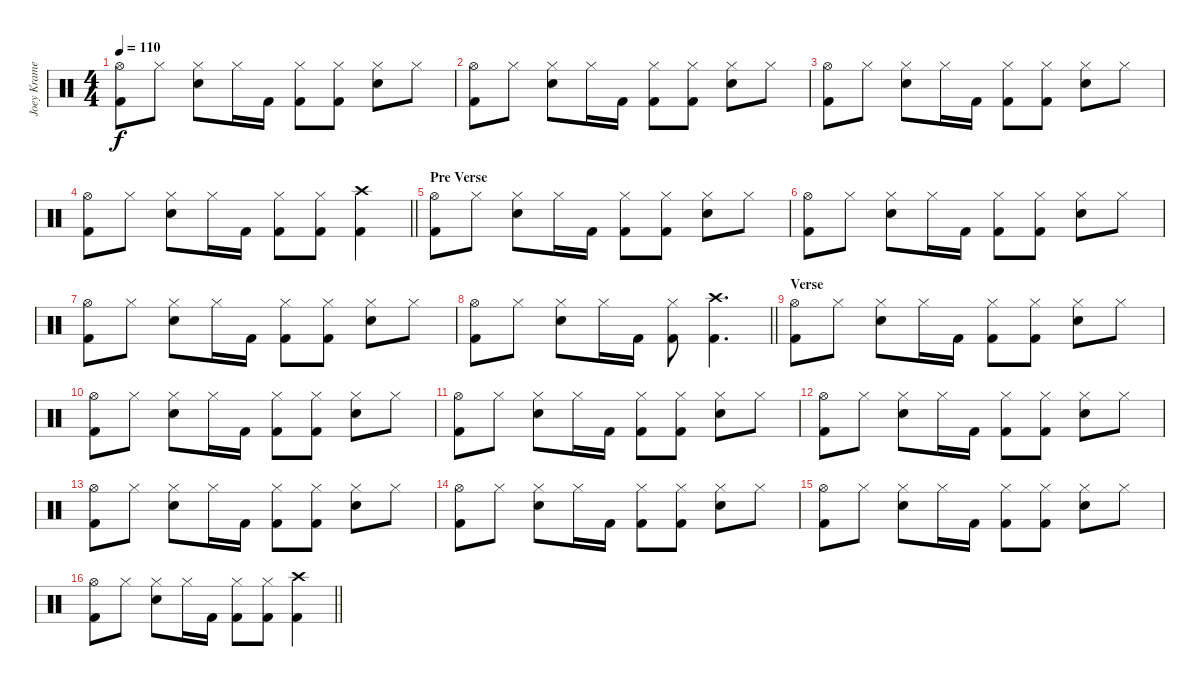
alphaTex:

\track ("Joey Kramer - Drums" "Joey Krame") {instrument percussion}
\staff {score}
\articulation defaults
\ts (4 4)
\tempo 110
\clef neutral
\ks c
("Hi-Hat (open)" "Kick (hit) 2").8{dy f} "Hi-Hat (closed)".8 ("Hi-Hat (closed)" "Electric Snare (hit)").8 "Hi-Hat (closed)".16 "Kick (hit) 2".16 ("Hi-Hat (closed)" "Kick (hit) 2").8 ("Hi-Hat (closed)" "Kick (hit) 2").8 ("Hi-Hat (closed)" "Electric Snare (hit)").8 "Hi-Hat (closed)".8 |
("Hi-Hat (open)" "Kick (hit) 2").8 "Hi-Hat (closed)".8 ("Hi-Hat (closed)" "Electric Snare (hit)").8 "Hi-Hat (closed)".16 "Kick (hit) 2".16 ("Hi-Hat (closed)" "Kick (hit) 2").8 ("Hi-Hat (closed)" "Kick (hit) 2").8 ("Hi-Hat (closed)" "Electric Snare (hit)").8 "Hi-Hat (closed)".8 |
("Hi-Hat (open)" "Kick (hit) 2").8 "Hi-Hat (closed)".8 ("Hi-Hat (closed)" "Electric Snare (hit)").8 "Hi-Hat (closed)".16 "Kick (hit) 2".16 ("Hi-Hat (closed)" "Kick (hit) 2").8 ("Hi-Hat (closed)" "Kick (hit) 2").8 ("Hi-Hat (closed)" "Electric Snare (hit)").8 "Hi-Hat (closed)".8 |
\barLineRight lightlight
("Hi-Hat (open)" "Kick (hit) 2").8 "Hi-Hat (closed)".8 ("Hi-Hat (closed)" "Electric Snare (hit)").8 "Hi-Hat (closed)".16 "Kick (hit) 2".16 ("Hi-Hat (closed)" "Kick (hit) 2").8 ("Hi-Hat (closed)" "Kick (hit) 2").8 ("Crash high (hit)" "Kick (hit) 2").4 |
\section ("" "Pre Verse")
("Hi-Hat (open)" "Kick (hit) 2").8 "Hi-Hat (closed)".8 ("Hi-Hat (closed)" "Electric Snare (hit)").8 "Hi-Hat (closed)".16 "Kick (hit) 2".16 ("Hi-Hat (closed)" "Kick (hit) 2").8 ("Hi-Hat (closed)" "Kick (hit) 2").8 ("Hi-Hat (closed)" "Electric Snare (hit)").8 "Hi-Hat (closed)".8 |
("Hi-Hat (open)" "Kick (hit) 2").8 "Hi-Hat (closed)".8 ("Hi-Hat (closed)" "Electric Snare (hit)").8 "Hi-Hat (closed)".16 "Kick (hit) 2".16 ("Hi-Hat (closed)" "Kick (hit) 2").8 ("Hi-Hat (closed)" "Kick (hit) 2").8 ("Hi-Hat (closed)" "Electric Snare (hit)").8 "Hi-Hat (closed)".8 |
("Hi-Hat (open)" "Kick (hit) 2").8 "Hi-Hat (closed)".8 ("Hi-Hat (closed)" "Electric Snare (hit)").8 "Hi-Hat (closed)".16 "Kick (hit) 2".16 ("Hi-Hat (closed)" "Kick (hit) 2").8 ("Hi-Hat (closed)" "Kick (hit) 2").8 ("Hi-Hat (closed)" "Electric Snare (hit)").8 "Hi-Hat (closed)".8 |
\barLineRight lightlight
("Hi-Hat (open)" "Kick (hit) 2").8 "Hi-Hat (closed)".8 ("Hi-Hat (closed)" "Electric Snare (hit)").8 "Hi-Hat (closed)".16 "Kick (hit) 2".16 ("Hi-Hat (closed)" "Kick (hit) 2").8 ("Crash high (hit)" "Kick (hit) 2").4{d} |
\section ("" "Verse")
("Hi-Hat (open)" "Kick (hit) 2").8 "Hi-Hat (closed)".8 ("Hi-Hat (closed)" "Electric Snare (hit)").8 "Hi-Hat (closed)".16 "Kick (hit) 2".16 ("Hi-Hat (closed)" "Kick (hit) 2").8 ("Hi-Hat (closed)" "Kick (hit) 2").8 ("Hi-Hat (closed)" "Electric Snare (hit)").8 "Hi-Hat (closed)".8 |
("Hi-Hat (open)" "Kick (hit) 2").8 "Hi-Hat (closed)".8 ("Hi-Hat (closed)" "Electric Snare (hit)").8 "Hi-Hat (closed)".16 "Kick (hit) 2".16 ("Hi-Hat (closed)" "Kick (hit) 2").8 ("Hi-Hat (closed)" "Kick (hit) 2").8 ("Hi-Hat (closed)" "Electric Snare (hit)").8 "Hi-Hat (closed)".8 |
("Hi-Hat (open)" "Kick (hit) 2").8 "Hi-Hat (closed)".8 ("Hi-Hat (closed)" "Electric Snare (hit)").8 "Hi-Hat (closed)".16 "Kick (hit) 2".16 ("Hi-Hat (closed)" "Kick (hit) 2").8 ("Hi-Hat (closed)" "Kick (hit) 2").8 ("Hi-Hat (closed)" "Electric Snare (hit)").8 "Hi-Hat (closed)".8 |
("Hi-Hat (open)" "Kick (hit) 2").8 "Hi-Hat (closed)".8 ("Hi-Hat (closed)" "Electric Snare (hit)").8 "Hi-Hat (closed)".16 "Kick (hit) 2".16 ("Hi-Hat (closed)" "Kick (hit) 2").8 ("Hi-Hat (closed)" "Kick (hit) 2").8 ("Hi-Hat (closed)" "Electric Snare (hit)").8 "Hi-Hat (closed)".8 |
("Hi-Hat (open)" "Kick (hit) 2").8 "Hi-Hat (closed)".8 ("Hi-Hat (closed)" "Electric Snare (hit)").8 "Hi-Hat (closed)".16 "Kick (hit) 2".16 ("Hi-Hat (closed)" "Kick (hit) 2").8 ("Hi-Hat (closed)" "Kick (hit) 2").8 ("Hi-Hat (closed)" "Electric Snare (hit)").8 "Hi-Hat (closed)".8 |
("Hi-Hat (open)" "Kick (hit) 2").8 "Hi-Hat (closed)".8 ("Hi-Hat (closed)" "Electric Snare (hit)").8 "Hi-Hat (closed)".16 "Kick (hit) 2".16 ("Hi-Hat (closed)" "Kick (hit) 2").8 ("Hi-Hat (closed)" "Kick (hit) 2").8 ("Hi-Hat (closed)" "Electric Snare (hit)").8 "Hi-Hat (closed)".8 |
("Hi-Hat (open)" "Kick (hit) 2").8 "Hi-Hat (closed)".8 ("Hi-Hat (closed)" "Electric Snare (hit)").8 "Hi-Hat (closed)".16 "Kick (hit) 2".16 ("Hi-Hat (closed)" "Kick (hit) 2").8 ("Hi-Hat (closed)" "Kick (hit) 2").8 ("Hi-Hat (closed)" "Electric Snare (hit)").8 "Hi-Hat (closed)".8 |
\barLineRight lightlight
("Hi-Hat (open)" "Kick (hit) 2").8 "Hi-Hat (closed)".8 ("Hi-Hat (closed)" "Electric Snare (hit)").8 "Hi-Hat (closed)".16 "Kick (hit) 2".16 ("Hi-Hat (closed)" "Kick (hit) 2").8 ("Hi-Hat (closed)" "Kick (hit) 2").8 ("Crash high (hit)" "Kick (hit) 2").4
